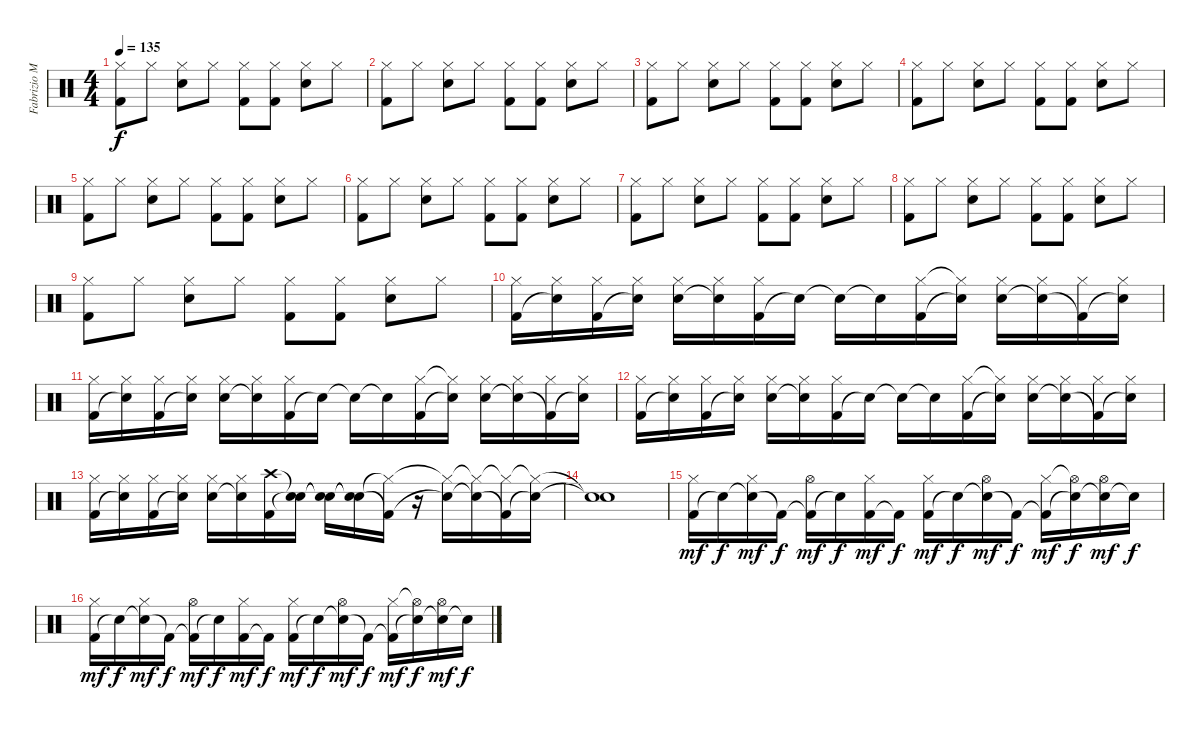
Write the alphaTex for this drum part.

\track ("Fabrizio Moretti" "Fabrizio M") {instrument percussion}
\staff {score}
\articulation defaults
\ts (4 4)
\tempo 135
\clef neutral
\ks c
("Hi-Hat (closed)" "Kick (hit) 2").8{dy f} "Hi-Hat (closed)".8 ("Hi-Hat (closed)" "Electric Snare (hit)").8 "Hi-Hat (closed)".8 ("Hi-Hat (closed)" "Kick (hit) 2").8 ("Hi-Hat (closed)" "Kick (hit) 2").8 ("Hi-Hat (closed)" "Electric Snare (hit)").8 "Hi-Hat (closed)".8 |
("Hi-Hat (closed)" "Kick (hit) 2").8 "Hi-Hat (closed)".8 ("Hi-Hat (closed)" "Electric Snare (hit)").8 "Hi-Hat (closed)".8 ("Hi-Hat (closed)" "Kick (hit) 2").8 ("Hi-Hat (closed)" "Kick (hit) 2").8 ("Hi-Hat (closed)" "Electric Snare (hit)").8 "Hi-Hat (closed)".8 |
("Hi-Hat (closed)" "Kick (hit) 2").8 "Hi-Hat (closed)".8 ("Hi-Hat (closed)" "Electric Snare (hit)").8 "Hi-Hat (closed)".8 ("Hi-Hat (closed)" "Kick (hit) 2").8 ("Hi-Hat (closed)" "Kick (hit) 2").8 ("Hi-Hat (closed)" "Electric Snare (hit)").8 "Hi-Hat (closed)".8 |
("Hi-Hat (closed)" "Kick (hit) 2").8 "Hi-Hat (closed)".8 ("Hi-Hat (closed)" "Electric Snare (hit)").8 "Hi-Hat (closed)".8 ("Hi-Hat (closed)" "Kick (hit) 2").8 ("Hi-Hat (closed)" "Kick (hit) 2").8 ("Hi-Hat (closed)" "Electric Snare (hit)").8 "Hi-Hat (closed)".8 |
("Hi-Hat (closed)" "Kick (hit) 2").8 "Hi-Hat (closed)".8 ("Hi-Hat (closed)" "Electric Snare (hit)").8 "Hi-Hat (closed)".8 ("Hi-Hat (closed)" "Kick (hit) 2").8 ("Hi-Hat (closed)" "Kick (hit) 2").8 ("Hi-Hat (closed)" "Electric Snare (hit)").8 "Hi-Hat (closed)".8 |
("Hi-Hat (closed)" "Kick (hit) 2").8 "Hi-Hat (closed)".8 ("Hi-Hat (closed)" "Electric Snare (hit)").8 "Hi-Hat (closed)".8 ("Hi-Hat (closed)" "Kick (hit) 2").8 ("Hi-Hat (closed)" "Kick (hit) 2").8 ("Hi-Hat (closed)" "Electric Snare (hit)").8 "Hi-Hat (closed)".8 |
("Hi-Hat (closed)" "Kick (hit) 2").8 "Hi-Hat (closed)".8 ("Hi-Hat (closed)" "Electric Snare (hit)").8 "Hi-Hat (closed)".8 ("Hi-Hat (closed)" "Kick (hit) 2").8 ("Hi-Hat (closed)" "Kick (hit) 2").8 ("Hi-Hat (closed)" "Electric Snare (hit)").8 "Hi-Hat (closed)".8 |
("Hi-Hat (closed)" "Kick (hit) 2").8 "Hi-Hat (closed)".8 ("Hi-Hat (closed)" "Electric Snare (hit)").8 "Hi-Hat (closed)".8 ("Hi-Hat (closed)" "Kick (hit) 2").8 ("Hi-Hat (closed)" "Kick (hit) 2").8 ("Hi-Hat (closed)" "Electric Snare (hit)").8 "Hi-Hat (closed)".8 |
("Hi-Hat (closed)" "Kick (hit) 2").8 "Hi-Hat (closed)".8 ("Hi-Hat (closed)" "Electric Snare (hit)").8 "Hi-Hat (closed)".8 ("Hi-Hat (closed)" "Kick (hit) 2").8 ("Hi-Hat (closed)" "Kick (hit) 2").8 ("Hi-Hat (closed)" "Electric Snare (hit)").8 "Hi-Hat (closed)".8 |
("Kick (hit) 2" "Hi-Hat (closed)").16 ("Snare (hit)"{t} "Hi-Hat (closed)").16 ("Kick (hit) 2" "Hi-Hat (closed)").16 ("Snare (hit)"{t} "Hi-Hat (closed)").16 ("Electric Snare (hit)" "Hi-Hat (closed)").16 ("Snare (hit)"{t} "Hi-Hat (closed)").16 ("Kick (hit) 2" "Hi-Hat (closed)").16 "Snare (hit)"{t}.16 "Snare (hit)"{t}.16 "Snare (hit)"{t}.16 ("Kick (hit) 2" "Hi-Hat (closed)").16 ("Snare (hit)"{t} "Hi-Hat (closed)"{t}).16 ("Electric Snare (hit)" "Hi-Hat (closed)").16 ("Snare (hit)"{t} "Hi-Hat (closed)").16 ("Kick (hit) 2"{t} "Hi-Hat (closed)").16 ("Snare (hit)"{t} "Hi-Hat (closed)").16 |
("Kick (hit) 2" "Hi-Hat (closed)").16 ("Snare (hit)"{t} "Hi-Hat (closed)").16 ("Kick (hit) 2" "Hi-Hat (closed)").16 ("Snare (hit)"{t} "Hi-Hat (closed)").16 ("Electric Snare (hit)" "Hi-Hat (closed)").16 ("Snare (hit)"{t} "Hi-Hat (closed)").16 ("Kick (hit) 2" "Hi-Hat (closed)").16 "Snare (hit)"{t}.16 "Snare (hit)"{t}.16 "Snare (hit)"{t}.16 ("Kick (hit) 2" "Hi-Hat (closed)").16 ("Snare (hit)"{t} "Hi-Hat (closed)"{t}).16 ("Electric Snare (hit)" "Hi-Hat (closed)").16 ("Snare (hit)"{t} "Hi-Hat (closed)").16 ("Kick (hit) 2"{t} "Hi-Hat (closed)").16 ("Snare (hit)"{t} "Hi-Hat (closed)").16 |
("Kick (hit) 2" "Hi-Hat (closed)").16 ("Snare (hit)"{t} "Hi-Hat (closed)").16 ("Kick (hit) 2" "Hi-Hat (closed)").16 ("Snare (hit)"{t} "Hi-Hat (closed)").16 ("Electric Snare (hit)" "Hi-Hat (closed)").16 ("Snare (hit)"{t} "Hi-Hat (closed)").16 ("Kick (hit) 2" "Hi-Hat (closed)").16 "Snare (hit)"{t}.16 "Snare (hit)"{t}.16 "Snare (hit)"{t}.16 ("Kick (hit) 2" "Hi-Hat (closed)").16 ("Snare (hit)"{t} "Hi-Hat (closed)"{t}).16 ("Electric Snare (hit)" "Hi-Hat (closed)").16 ("Snare (hit)"{t} "Hi-Hat (closed)").16 ("Kick (hit) 2"{t} "Hi-Hat (closed)").16 ("Snare (hit)"{t} "Hi-Hat (closed)").16 |
("Kick (hit) 2" "Hi-Hat (closed)").16 ("Snare (hit)"{t} "Hi-Hat (closed)").16 ("Kick (hit) 2" "Hi-Hat (closed)").16 ("Snare (hit)"{t} "Hi-Hat (closed)").16 ("Electric Snare (hit)" "Hi-Hat (closed)").16 ("Snare (hit)"{t} "Hi-Hat (closed)").16 ("Kick (hit) 2" "Crash high (hit)").16 ("Snare (hit)"{t} "Snare (hit)"{t}).16 ("Snare (hit)"{t} "Snare (hit)"{t}).16 ("Snare (hit)"{t} "Snare (hit)"{t}).16 ("Kick (hit) 2"{t} "Hi-Hat (closed)"{t}).16 r.16 ("Electric Snare (hit)"{t} "Hi-Hat (closed)"{t}).16 ("Snare (hit)"{t} "Hi-Hat (closed)"{t}).16 ("Kick (hit) 2"{t} "Hi-Hat (closed)"{t}).16 ("Snare (hit)"{t} "Hi-Hat (closed)"{t}).16 |
("Snare (hit)"{t} "Snare (hit)"{t}).1 |
("Kick (hit) 2" "Hi-Hat (closed)").16{dy mf} "Snare (hit)"{t}.16{dy f} ("Snare (hit)"{t} "Hi-Hat (closed)").16{dy mf} "Kick (hit) 2"{t}.16{dy f} ("Kick (hit) 2"{t} "Hi-Hat (open)").16{dy mf} "Snare (hit)"{t}.16{dy f} ("Kick (hit) 2" "Hi-Hat (closed)").16{dy mf} "Kick (hit) 2"{t}.16{dy f} ("Kick (hit) 2" "Hi-Hat (closed)").16{dy mf} "Snare (hit)"{t}.16{dy f} ("Snare (hit)"{t} "Hi-Hat (open)").16{dy mf} "Kick (hit) 2"{t}.16{dy f} ("Kick (hit) 2"{t} "Hi-Hat (closed)").16{dy mf} ("Snare (hit)"{t} "Hi-Hat (open)"{t}).16{dy f} ("Snare (hit)"{t} "Hi-Hat (open)").16{dy mf} "Snare (hit)"{t}.16{dy f} |
("Kick (hit) 2" "Hi-Hat (closed)").16{dy mf} "Snare (hit)"{t}.16{dy f} ("Snare (hit)"{t} "Hi-Hat (closed)").16{dy mf} "Kick (hit) 2"{t}.16{dy f} ("Kick (hit) 2"{t} "Hi-Hat (open)").16{dy mf} "Snare (hit)"{t}.16{dy f} ("Kick (hit) 2" "Hi-Hat (closed)").16{dy mf} "Kick (hit) 2"{t}.16{dy f} ("Kick (hit) 2" "Hi-Hat (closed)").16{dy mf} "Snare (hit)"{t}.16{dy f} ("Snare (hit)"{t} "Hi-Hat (open)").16{dy mf} "Kick (hit) 2"{t}.16{dy f} ("Kick (hit) 2"{t} "Hi-Hat (closed)").16{dy mf} ("Snare (hit)"{t} "Hi-Hat (open)"{t}).16{dy f} ("Snare (hit)"{t} "Hi-Hat (open)").16{dy mf} "Snare (hit)"{t}.16{dy f}
